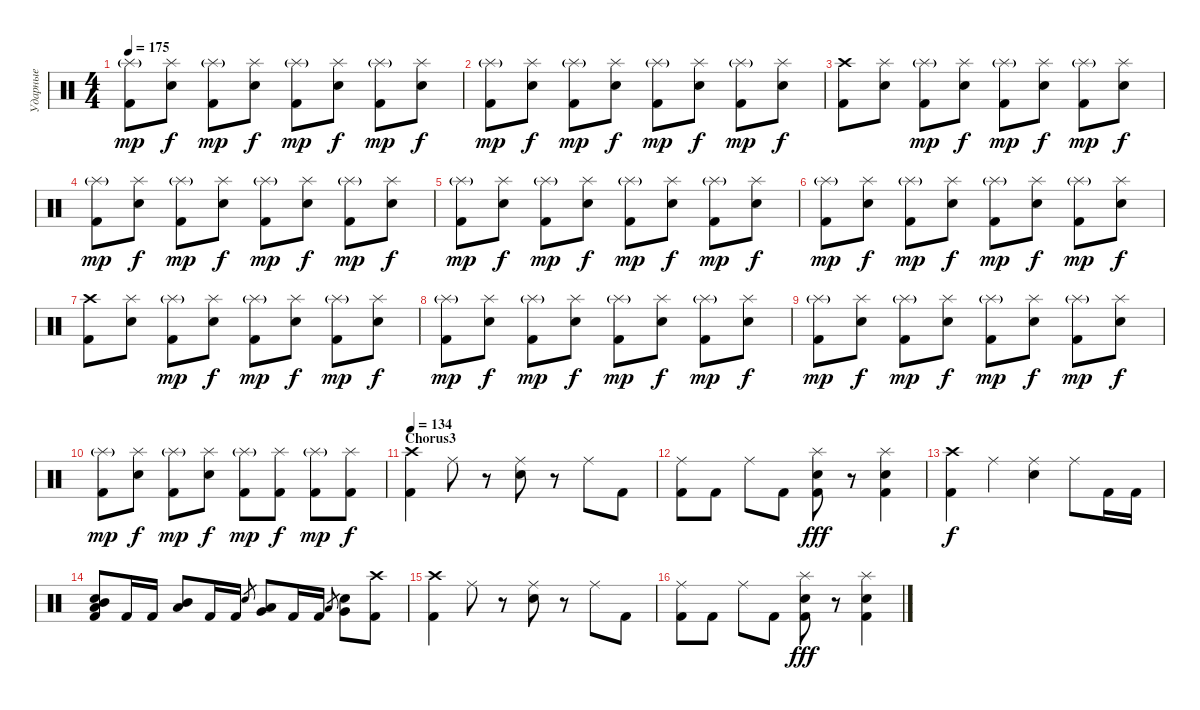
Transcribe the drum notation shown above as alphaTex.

\track ("Ударные" "Ударные") {instrument percussion}
\staff {score}
\articulation defaults
\ts (4 4)
\tempo 175
\clef neutral
\ks c
("Splash (hit)"{g} "Kick (hit) 2").8{dy mp} ("Splash (hit)" "Electric Snare (hit)").8{dy f} ("Splash (hit)"{g} "Kick (hit) 2").8{dy mp} ("Splash (hit)" "Electric Snare (hit)").8{dy f} ("Splash (hit)"{g} "Kick (hit) 2").8{dy mp} ("Splash (hit)" "Electric Snare (hit)").8{dy f} ("Splash (hit)"{g} "Kick (hit) 2").8{dy mp} ("Splash (hit)" "Electric Snare (hit)").8{dy f} |
("Splash (hit)"{g} "Kick (hit) 2").8{dy mp} ("Splash (hit)" "Electric Snare (hit)").8{dy f} ("Splash (hit)"{g} "Kick (hit) 2").8{dy mp} ("Splash (hit)" "Electric Snare (hit)").8{dy f} ("Splash (hit)"{g} "Kick (hit) 2").8{dy mp} ("Splash (hit)" "Electric Snare (hit)").8{dy f} ("Splash (hit)"{g} "Kick (hit) 2").8{dy mp} ("Splash (hit)" "Electric Snare (hit)").8{dy f} |
("Crash high (hit)" "Kick (hit) 2").8 ("Splash (hit)" "Electric Snare (hit)").8 ("Splash (hit)"{g} "Kick (hit) 2").8{dy mp} ("Splash (hit)" "Electric Snare (hit)").8{dy f} ("Splash (hit)"{g} "Kick (hit) 2").8{dy mp} ("Splash (hit)" "Electric Snare (hit)").8{dy f} ("Splash (hit)"{g} "Kick (hit) 2").8{dy mp} ("Splash (hit)" "Electric Snare (hit)").8{dy f} |
("Splash (hit)"{g} "Kick (hit) 2").8{dy mp} ("Splash (hit)" "Electric Snare (hit)").8{dy f} ("Splash (hit)"{g} "Kick (hit) 2").8{dy mp} ("Splash (hit)" "Electric Snare (hit)").8{dy f} ("Splash (hit)"{g} "Kick (hit) 2").8{dy mp} ("Splash (hit)" "Electric Snare (hit)").8{dy f} ("Splash (hit)"{g} "Kick (hit) 2").8{dy mp} ("Splash (hit)" "Electric Snare (hit)").8{dy f} |
("Splash (hit)"{g} "Kick (hit) 2").8{dy mp} ("Splash (hit)" "Electric Snare (hit)").8{dy f} ("Splash (hit)"{g} "Kick (hit) 2").8{dy mp} ("Splash (hit)" "Electric Snare (hit)").8{dy f} ("Splash (hit)"{g} "Kick (hit) 2").8{dy mp} ("Splash (hit)" "Electric Snare (hit)").8{dy f} ("Splash (hit)"{g} "Kick (hit) 2").8{dy mp} ("Splash (hit)" "Electric Snare (hit)").8{dy f} |
("Splash (hit)"{g} "Kick (hit) 2").8{dy mp} ("Splash (hit)" "Electric Snare (hit)").8{dy f} ("Splash (hit)"{g} "Kick (hit) 2").8{dy mp} ("Splash (hit)" "Electric Snare (hit)").8{dy f} ("Splash (hit)"{g} "Kick (hit) 2").8{dy mp} ("Splash (hit)" "Electric Snare (hit)").8{dy f} ("Splash (hit)"{g} "Kick (hit) 2").8{dy mp} ("Splash (hit)" "Electric Snare (hit)").8{dy f} |
("Crash high (hit)" "Kick (hit) 2").8 ("Splash (hit)" "Electric Snare (hit)").8 ("Splash (hit)"{g} "Kick (hit) 2").8{dy mp} ("Splash (hit)" "Electric Snare (hit)").8{dy f} ("Splash (hit)"{g} "Kick (hit) 2").8{dy mp} ("Splash (hit)" "Electric Snare (hit)").8{dy f} ("Splash (hit)"{g} "Kick (hit) 2").8{dy mp} ("Splash (hit)" "Electric Snare (hit)").8{dy f} |
("Splash (hit)"{g} "Kick (hit) 2").8{dy mp} ("Splash (hit)" "Electric Snare (hit)").8{dy f} ("Splash (hit)"{g} "Kick (hit) 2").8{dy mp} ("Splash (hit)" "Electric Snare (hit)").8{dy f} ("Splash (hit)"{g} "Kick (hit) 2").8{dy mp} ("Splash (hit)" "Electric Snare (hit)").8{dy f} ("Splash (hit)"{g} "Kick (hit) 2").8{dy mp} ("Splash (hit)" "Electric Snare (hit)").8{dy f} |
("Splash (hit)"{g} "Kick (hit) 2").8{dy mp} ("Splash (hit)" "Electric Snare (hit)").8{dy f} ("Splash (hit)"{g} "Kick (hit) 2").8{dy mp} ("Splash (hit)" "Electric Snare (hit)").8{dy f} ("Splash (hit)"{g} "Kick (hit) 2").8{dy mp} ("Splash (hit)" "Electric Snare (hit)").8{dy f} ("Splash (hit)"{g} "Kick (hit) 2").8{dy mp} ("Splash (hit)" "Electric Snare (hit)").8{dy f} |
("Splash (hit)"{g} "Kick (hit) 2").8{dy mp} ("Splash (hit)" "Electric Snare (hit)").8{dy f} ("Splash (hit)"{g} "Kick (hit) 2").8{dy mp} ("Splash (hit)" "Electric Snare (hit)").8{dy f} ("Splash (hit)"{g} "Kick (hit) 2").8{dy mp} ("Splash (hit)" "Kick (hit) 2").8{dy f} ("Splash (hit)"{g} "Kick (hit) 2").8{dy mp} ("Splash (hit)" "Kick (hit) 2").8{dy f} |
\section ("" "Chorus3")
\tempo 134
("Crash high (hit)" "Kick (hit) 2").4 "Ride (middle)".8 r.8 ("Ride (middle)" "Electric Snare (hit)").8 r.8 "Ride (middle)".8 "Kick (hit) 2".8 |
("Ride (middle)" "Kick (hit) 2").8 "Kick (hit) 2".8 "Ride (middle)".8 "Kick (hit) 2".8 ("Splash (hit)" "Electric Snare (hit)" "Kick (hit) 2").8{dy fff} r.8 ("Splash (hit)" "Electric Snare (hit)" "Kick (hit) 2").4 |
("Crash high (hit)" "Kick (hit) 2").4{dy f} "Ride (middle)".4 ("Ride (middle)" "Electric Snare (hit)").4 "Ride (middle)".8 "Kick (hit) 2".16 "Kick (hit) 2".16 |
("Mid Tom (hit)" "Electric Snare (hit)" "Low Tom (hit)" "Kick (hit) 2").8 "Kick (hit) 2".16 "Kick (hit) 2".16 ("Low Tom (hit)" "Mid Tom (hit)").8 "Kick (hit) 2".16 "Kick (hit) 2".16 "Electric Snare (hit)".8{gr} ("Very Low Tom (hit)" "Low Tom (hit)").8 "Kick (hit) 2".16 "Kick (hit) 2".16 "Low Floor Tom (hit)".8{gr} ("Electric Snare (hit)" "Very Low Tom (hit)").8 ("Crash high (hit)" "Kick (hit) 2").8 |
("Crash high (hit)" "Kick (hit) 2").4 "Ride (middle)".8 r.8 ("Ride (middle)" "Electric Snare (hit)").8 r.8 "Ride (middle)".8 "Kick (hit) 2".8 |
("Ride (middle)" "Kick (hit) 2").8 "Kick (hit) 2".8 "Ride (middle)".8 "Kick (hit) 2".8 ("Splash (hit)" "Electric Snare (hit)" "Kick (hit) 2").8{dy fff} r.8 ("Splash (hit)" "Electric Snare (hit)" "Kick (hit) 2").4
